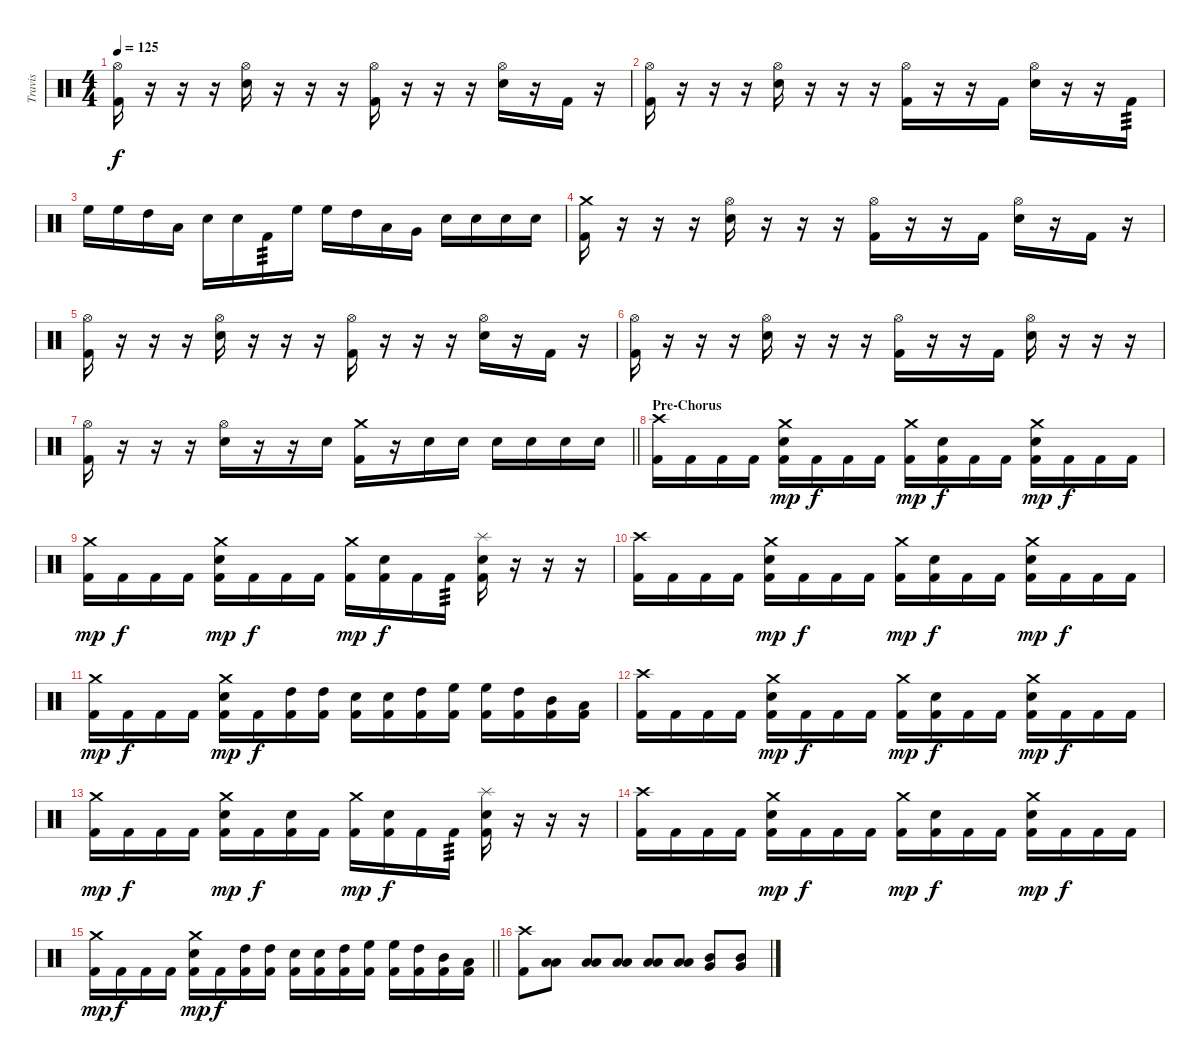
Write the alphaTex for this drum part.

\track ("Travis" "Travis") {instrument percussion}
\staff {score}
\articulation defaults
\ts (4 4)
\tempo 125
\clef neutral
\ks c
("Kick (hit) 2" "Hi-Hat (open)").16{dy f} r.16 r.16 r.16 ("Electric Snare (hit)" "Hi-Hat (open)").16 r.16 r.16 r.16 ("Kick (hit) 2" "Hi-Hat (open)").16 r.16 r.16 r.16 ("Electric Snare (hit)" "Hi-Hat (open)").16 r.16 "Kick (hit) 2".16 r.16 |
("Kick (hit) 2" "Hi-Hat (open)").16 r.16 r.16 r.16 ("Electric Snare (hit)" "Hi-Hat (open)").16 r.16 r.16 r.16 ("Kick (hit) 2" "Hi-Hat (open)").16 r.16 r.16 "Kick (hit) 2".16 ("Electric Snare (hit)" "Hi-Hat (open)").16 r.16 r.16 "Kick (hit) 2".16{tp 3} |
"High Floor Tom (hit)".16 "High Floor Tom (hit)".16 "High Tom (hit)".16 "Low Tom (hit)".16 "Electric Snare (hit)".16 "Electric Snare (hit)".16 "Kick (hit) 2".16{tp 3} "High Floor Tom (hit)".16 "High Floor Tom (hit)".16 "High Tom (hit)".16 "Low Tom (hit)".16 "Very Low Tom (hit)".16 "Electric Snare (hit)".16 "Electric Snare (hit)".16 "Electric Snare (hit)".16 "Electric Snare (hit)".16 |
("Kick (hit) 2" "Crash medium (hit)").16 r.16 r.16 r.16 ("Electric Snare (hit)" "Hi-Hat (open)").16 r.16 r.16 r.16 ("Kick (hit) 2" "Hi-Hat (open)").16 r.16 r.16 "Kick (hit) 2".16 ("Electric Snare (hit)" "Hi-Hat (open)").16 r.16 "Kick (hit) 2".16 r.16 |
("Kick (hit) 2" "Hi-Hat (open)").16 r.16 r.16 r.16 ("Electric Snare (hit)" "Hi-Hat (open)").16 r.16 r.16 r.16 ("Kick (hit) 2" "Hi-Hat (open)").16 r.16 r.16 r.16 ("Electric Snare (hit)" "Hi-Hat (open)").16 r.16 "Kick (hit) 2".16 r.16 |
("Kick (hit) 2" "Hi-Hat (open)").16 r.16 r.16 r.16 ("Electric Snare (hit)" "Hi-Hat (open)").16 r.16 r.16 r.16 ("Kick (hit) 2" "Hi-Hat (open)").16 r.16 r.16 "Kick (hit) 2".16 ("Electric Snare (hit)" "Hi-Hat (open)").16 r.16 r.16 r.16 |
\barLineRight lightlight
("Kick (hit) 2" "Hi-Hat (open)").16 r.16 r.16 r.16 ("Electric Snare (hit)" "Hi-Hat (open)").16 r.16 r.16 "Electric Snare (hit)".16 ("Crash medium (hit)" "Kick (hit) 2").16 r.16 "Electric Snare (hit)".16 "Electric Snare (hit)".16 "Electric Snare (hit)".16 "Electric Snare (hit)".16 "Electric Snare (hit)".16 "Electric Snare (hit)".16 |
\section ("" "Pre-Chorus")
("Crash high (hit)" "Kick (hit) 2").16 "Kick (hit) 2".16 "Kick (hit) 2".16 "Kick (hit) 2".16 ("Crash medium (hit)" "Electric Snare (hit)" "Kick (hit) 2").16{dy mp} "Kick (hit) 2".16{dy f} "Kick (hit) 2".16 "Kick (hit) 2".16 ("Crash medium (hit)" "Kick (hit) 2").16{dy mp} ("Electric Snare (hit)" "Kick (hit) 2").16{dy f} "Kick (hit) 2".16 "Kick (hit) 2".16 ("Crash medium (hit)" "Electric Snare (hit)" "Kick (hit) 2").16{dy mp} "Kick (hit) 2".16{dy f} "Kick (hit) 2".16 "Kick (hit) 2".16 |
("Crash medium (hit)" "Kick (hit) 2").16{dy mp} "Kick (hit) 2".16{dy f} "Kick (hit) 2".16 "Kick (hit) 2".16 ("Crash medium (hit)" "Electric Snare (hit)" "Kick (hit) 2").16{dy mp} "Kick (hit) 2".16{dy f} "Kick (hit) 2".16 "Kick (hit) 2".16 ("Crash medium (hit)" "Kick (hit) 2").16{dy mp} ("Electric Snare (hit)" "Kick (hit) 2").16{dy f} "Kick (hit) 2".16 "Kick (hit) 2".16{tp 3} ("Splash (hit)" "Electric Snare (hit)" "Kick (hit) 2").16 r.16 r.16 r.16 |
("Crash high (hit)" "Kick (hit) 2").16 "Kick (hit) 2".16 "Kick (hit) 2".16 "Kick (hit) 2".16 ("Crash medium (hit)" "Electric Snare (hit)" "Kick (hit) 2").16{dy mp} "Kick (hit) 2".16{dy f} "Kick (hit) 2".16 "Kick (hit) 2".16 ("Crash medium (hit)" "Kick (hit) 2").16{dy mp} ("Electric Snare (hit)" "Kick (hit) 2").16{dy f} "Kick (hit) 2".16 "Kick (hit) 2".16 ("Crash medium (hit)" "Electric Snare (hit)" "Kick (hit) 2").16{dy mp} "Kick (hit) 2".16{dy f} "Kick (hit) 2".16 "Kick (hit) 2".16 |
("Crash medium (hit)" "Kick (hit) 2").16{dy mp} "Kick (hit) 2".16{dy f} "Kick (hit) 2".16 "Kick (hit) 2".16 ("Crash medium (hit)" "Electric Snare (hit)" "Kick (hit) 2").16{dy mp} "Kick (hit) 2".16{dy f} ("High Tom (hit)" "Kick (hit) 2").16 ("High Tom (hit)" "Kick (hit) 2").16 ("Electric Snare (hit)" "Kick (hit) 2").16 ("Electric Snare (hit)" "Kick (hit) 2").16 ("High Tom (hit)" "Kick (hit) 2").16 ("High Floor Tom (hit)" "Kick (hit) 2").16 ("High Floor Tom (hit)" "Kick (hit) 2").16 ("High Tom (hit)" "Kick (hit) 2").16 ("Mid Tom (hit)" "Kick (hit) 2").16 ("Low Tom (hit)" "Kick (hit) 2").16 |
("Crash high (hit)" "Kick (hit) 2").16 "Kick (hit) 2".16 "Kick (hit) 2".16 "Kick (hit) 2".16 ("Crash medium (hit)" "Electric Snare (hit)" "Kick (hit) 2").16{dy mp} "Kick (hit) 2".16{dy f} "Kick (hit) 2".16 "Kick (hit) 2".16 ("Crash medium (hit)" "Kick (hit) 2").16{dy mp} ("Electric Snare (hit)" "Kick (hit) 2").16{dy f} "Kick (hit) 2".16 "Kick (hit) 2".16 ("Crash medium (hit)" "Electric Snare (hit)" "Kick (hit) 2").16{dy mp} "Kick (hit) 2".16{dy f} "Kick (hit) 2".16 "Kick (hit) 2".16 |
("Crash medium (hit)" "Kick (hit) 2").16{dy mp} "Kick (hit) 2".16{dy f} "Kick (hit) 2".16 "Kick (hit) 2".16 ("Crash medium (hit)" "Electric Snare (hit)" "Kick (hit) 2").16{dy mp} "Kick (hit) 2".16{dy f} ("Electric Snare (hit)" "Kick (hit) 2").16 "Kick (hit) 2".16 ("Crash medium (hit)" "Kick (hit) 2").16{dy mp} ("Electric Snare (hit)" "Kick (hit) 2").16{dy f} "Kick (hit) 2".16 "Kick (hit) 2".16{tp 3} ("Splash (hit)" "Electric Snare (hit)" "Kick (hit) 2").16 r.16 r.16 r.16 |
("Crash high (hit)" "Kick (hit) 2").16 "Kick (hit) 2".16 "Kick (hit) 2".16 "Kick (hit) 2".16 ("Crash medium (hit)" "Electric Snare (hit)" "Kick (hit) 2").16{dy mp} "Kick (hit) 2".16{dy f} "Kick (hit) 2".16 "Kick (hit) 2".16 ("Crash medium (hit)" "Kick (hit) 2").16{dy mp} ("Electric Snare (hit)" "Kick (hit) 2").16{dy f} "Kick (hit) 2".16 "Kick (hit) 2".16 ("Crash medium (hit)" "Electric Snare (hit)" "Kick (hit) 2").16{dy mp} "Kick (hit) 2".16{dy f} "Kick (hit) 2".16 "Kick (hit) 2".16 |
\barLineRight lightlight
("Crash medium (hit)" "Kick (hit) 2").16{dy mp} "Kick (hit) 2".16{dy f} "Kick (hit) 2".16 "Kick (hit) 2".16 ("Crash medium (hit)" "Electric Snare (hit)" "Kick (hit) 2").16{dy mp} "Kick (hit) 2".16{dy f} ("High Tom (hit)" "Kick (hit) 2").16 ("High Tom (hit)" "Kick (hit) 2").16 ("Electric Snare (hit)" "Kick (hit) 2").16 ("Electric Snare (hit)" "Kick (hit) 2").16 ("High Tom (hit)" "Kick (hit) 2").16 ("High Floor Tom (hit)" "Kick (hit) 2").16 ("High Floor Tom (hit)" "Kick (hit) 2").16 ("High Tom (hit)" "Kick (hit) 2").16 ("Mid Tom (hit)" "Kick (hit) 2").16 ("Low Tom (hit)" "Kick (hit) 2").16 |
\section ("" "")
("Crash high (hit)" "Kick (hit) 2").8 ("Low Tom (hit)" "Low Floor Tom (hit)").8 ("Low Tom (hit)" "Low Floor Tom (hit)").8 ("Low Tom (hit)" "Low Floor Tom (hit)").8 ("Low Tom (hit)" "Low Floor Tom (hit)").8 ("Low Tom (hit)" "Low Floor Tom (hit)").8 ("Mid Tom (hit)" "Very Low Tom (hit)").8 ("Mid Tom (hit)" "Very Low Tom (hit)").8
